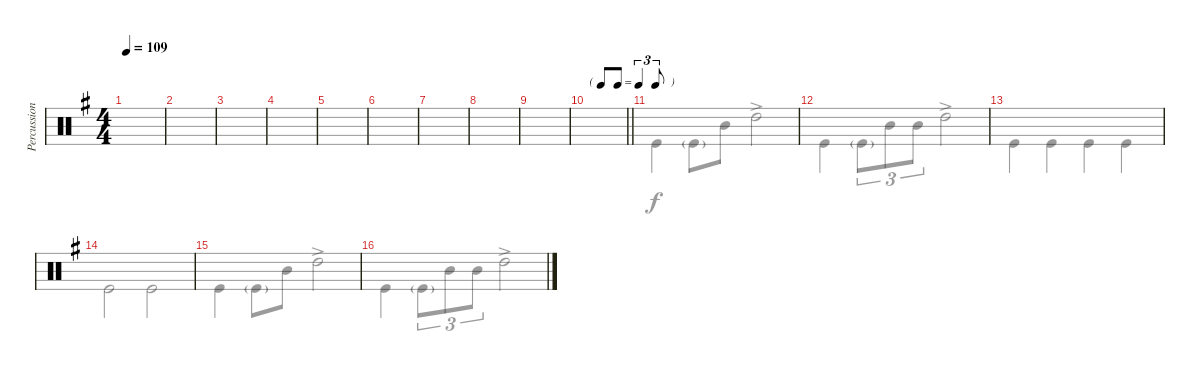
\track ("Percussion" "Percussion") {instrument percussion}
\staff {score}
\articulation defaults
\voice
\ts (4 4)
\tempo 109
\clef neutral
\ks eminor
|
|
|
|
|
|
|
|
|
\tf triplet8th
\barLineRight lightlight
|
|
|
|
|
|
\voice
\clef neutral
\ks eminor
|
|
|
|
|
|
|
|
|
\barLineRight lightlight
|
"Kick (hit)".4 "Kick (hit)"{g}.8 "Mid Tom (hit)".8 "High Tom (hit)"{ac}.2 |
"Kick (hit)".4 "Kick (hit)"{g}.8{tu (3 2)} "Mid Tom (hit)".8{tu (3 2)} "Mid Tom (hit)".8{tu (3 2)} "High Tom (hit)"{ac}.2 |
"Kick (hit)".4 "Kick (hit)".4 "Kick (hit)".4 "Kick (hit)".4 |
"Kick (hit)".2 "Kick (hit)".2 |
"Kick (hit)".4 "Kick (hit)"{g}.8 "Mid Tom (hit)".8 "High Tom (hit)"{ac}.2 |
"Kick (hit)".4 "Kick (hit)"{g}.8{tu (3 2)} "Mid Tom (hit)".8{tu (3 2)} "Mid Tom (hit)".8{tu (3 2)} "High Tom (hit)"{ac}.2
